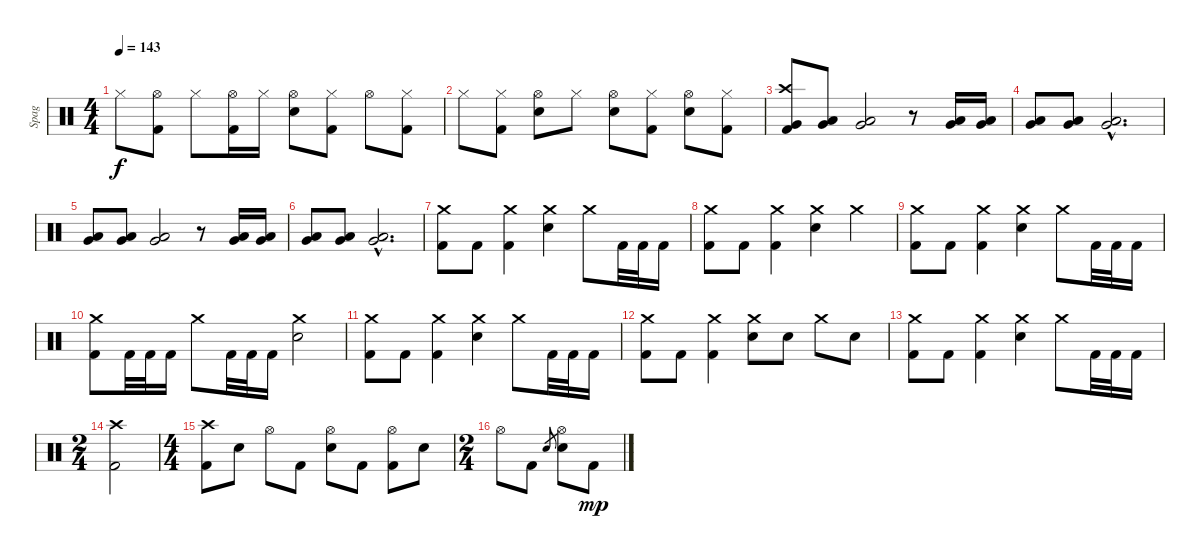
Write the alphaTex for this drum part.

\track ("Spag" "Spag") {instrument percussion}
\staff {score}
\articulation defaults
\ts (4 4)
\tempo 143
\clef neutral
\ks c "Hi-Hat (closed)".8{dy f}
("Hi-Hat (open)" "Kick (hit) 2").8 "Hi-Hat (closed)".8 ("Hi-Hat (open)" "Kick (hit) 2").16 "Hi-Hat (closed)".16 ("Hi-Hat (open)" "Electric Snare (hit)").8 ("Hi-Hat (closed)" "Kick (hit) 2").8 "Hi-Hat (open)".8 ("Hi-Hat (closed)" "Kick (hit) 2").8 |
"Hi-Hat (closed)".8 ("Hi-Hat (closed)" "Kick (hit) 2").8 ("Hi-Hat (open)" "Electric Snare (hit)").8 "Hi-Hat (closed)".8 ("Hi-Hat (open)" "Electric Snare (hit)").8 ("Hi-Hat (closed)" "Kick (hit) 2").8 ("Hi-Hat (open)" "Electric Snare (hit)").8 ("Hi-Hat (closed)" "Kick (hit) 2").8 |
("Crash high (hit)" "Very Low Tom (hit)" "Kick (hit) 2").8 ("Very Low Tom (hit)" "Low Floor Tom (hit)").8 ("Very Low Tom (hit)" "Low Floor Tom (hit)").2 r.8 ("Very Low Tom (hit)" "Low Floor Tom (hit)").16 ("Very Low Tom (hit)" "Low Floor Tom (hit)").16 |
("Very Low Tom (hit)" "Low Floor Tom (hit)").8 ("Very Low Tom (hit)" "Low Floor Tom (hit)").8 ("Very Low Tom (hit)"{hac} "Low Floor Tom (hit)"{hac}).2{d} |
("Very Low Tom (hit)" "Low Floor Tom (hit)").8 ("Very Low Tom (hit)" "Low Floor Tom (hit)").8 ("Very Low Tom (hit)" "Low Floor Tom (hit)").2 r.8 ("Very Low Tom (hit)" "Low Floor Tom (hit)").16 ("Very Low Tom (hit)" "Low Floor Tom (hit)").16 |
("Very Low Tom (hit)" "Low Floor Tom (hit)").8 ("Very Low Tom (hit)" "Low Floor Tom (hit)").8 ("Very Low Tom (hit)"{hac} "Low Floor Tom (hit)"{hac}).2{d} |
("Crash medium (hit)" "Kick (hit) 2").8 "Kick (hit) 2".8 ("Crash medium (hit)" "Kick (hit) 2").4 ("Crash medium (hit)" "Electric Snare (hit)").4 "Crash medium (hit)".8 "Kick (hit) 2".32 "Kick (hit) 2".32 "Kick (hit) 2".16 |
("Crash medium (hit)" "Kick (hit) 2").8 "Kick (hit) 2".8 ("Crash medium (hit)" "Kick (hit) 2").4 ("Crash medium (hit)" "Electric Snare (hit)").4 "Crash medium (hit)".4 |
("Crash medium (hit)" "Kick (hit) 2").8 "Kick (hit) 2".8 ("Crash medium (hit)" "Kick (hit) 2").4 ("Crash medium (hit)" "Electric Snare (hit)").4 "Crash medium (hit)".8 "Kick (hit) 2".32 "Kick (hit) 2".32 "Kick (hit) 2".16 |
("Crash medium (hit)" "Kick (hit) 2").8 "Kick (hit) 2".32 "Kick (hit) 2".32 "Kick (hit) 2".16 "Crash medium (hit)".8 "Kick (hit) 2".32 "Kick (hit) 2".32 "Kick (hit) 2".16 ("Crash medium (hit)" "Electric Snare (hit)").2 |
("Crash medium (hit)" "Kick (hit) 2").8 "Kick (hit) 2".8 ("Crash medium (hit)" "Kick (hit) 2").4 ("Crash medium (hit)" "Electric Snare (hit)").4 "Crash medium (hit)".8 "Kick (hit) 2".32 "Kick (hit) 2".32 "Kick (hit) 2".16 |
("Crash medium (hit)" "Kick (hit) 2").8 "Kick (hit) 2".8 ("Crash medium (hit)" "Kick (hit) 2").4 ("Crash medium (hit)" "Electric Snare (hit)").8 "Electric Snare (hit)".8 "Crash medium (hit)".8 "Electric Snare (hit)".8 |
("Crash medium (hit)" "Kick (hit) 2").8 "Kick (hit) 2".8 ("Crash medium (hit)" "Kick (hit) 2").4 ("Crash medium (hit)" "Electric Snare (hit)").4 "Crash medium (hit)".8 "Kick (hit) 2".32 "Kick (hit) 2".32 "Kick (hit) 2".16 |
\ts (2 4)
("Crash high (hit)" "Kick (hit) 2").2 |
\ts (4 4)
("Crash high (hit)" "Kick (hit) 2").8 "Electric Snare (hit)".8 "Hi-Hat (open)".8 "Kick (hit) 2".8 ("Hi-Hat (open)" "Electric Snare (hit)").8 "Kick (hit) 2".8 ("Hi-Hat (open)" "Kick (hit) 2").8 "Electric Snare (hit)".8 |
\ts (2 4)
"Hi-Hat (open)".8 "Kick (hit) 2".8 "Electric Snare (hit)".8{gr} ("Hi-Hat (open)" "Electric Snare (hit)").8 "Kick (hit) 2".8{dy mp}
